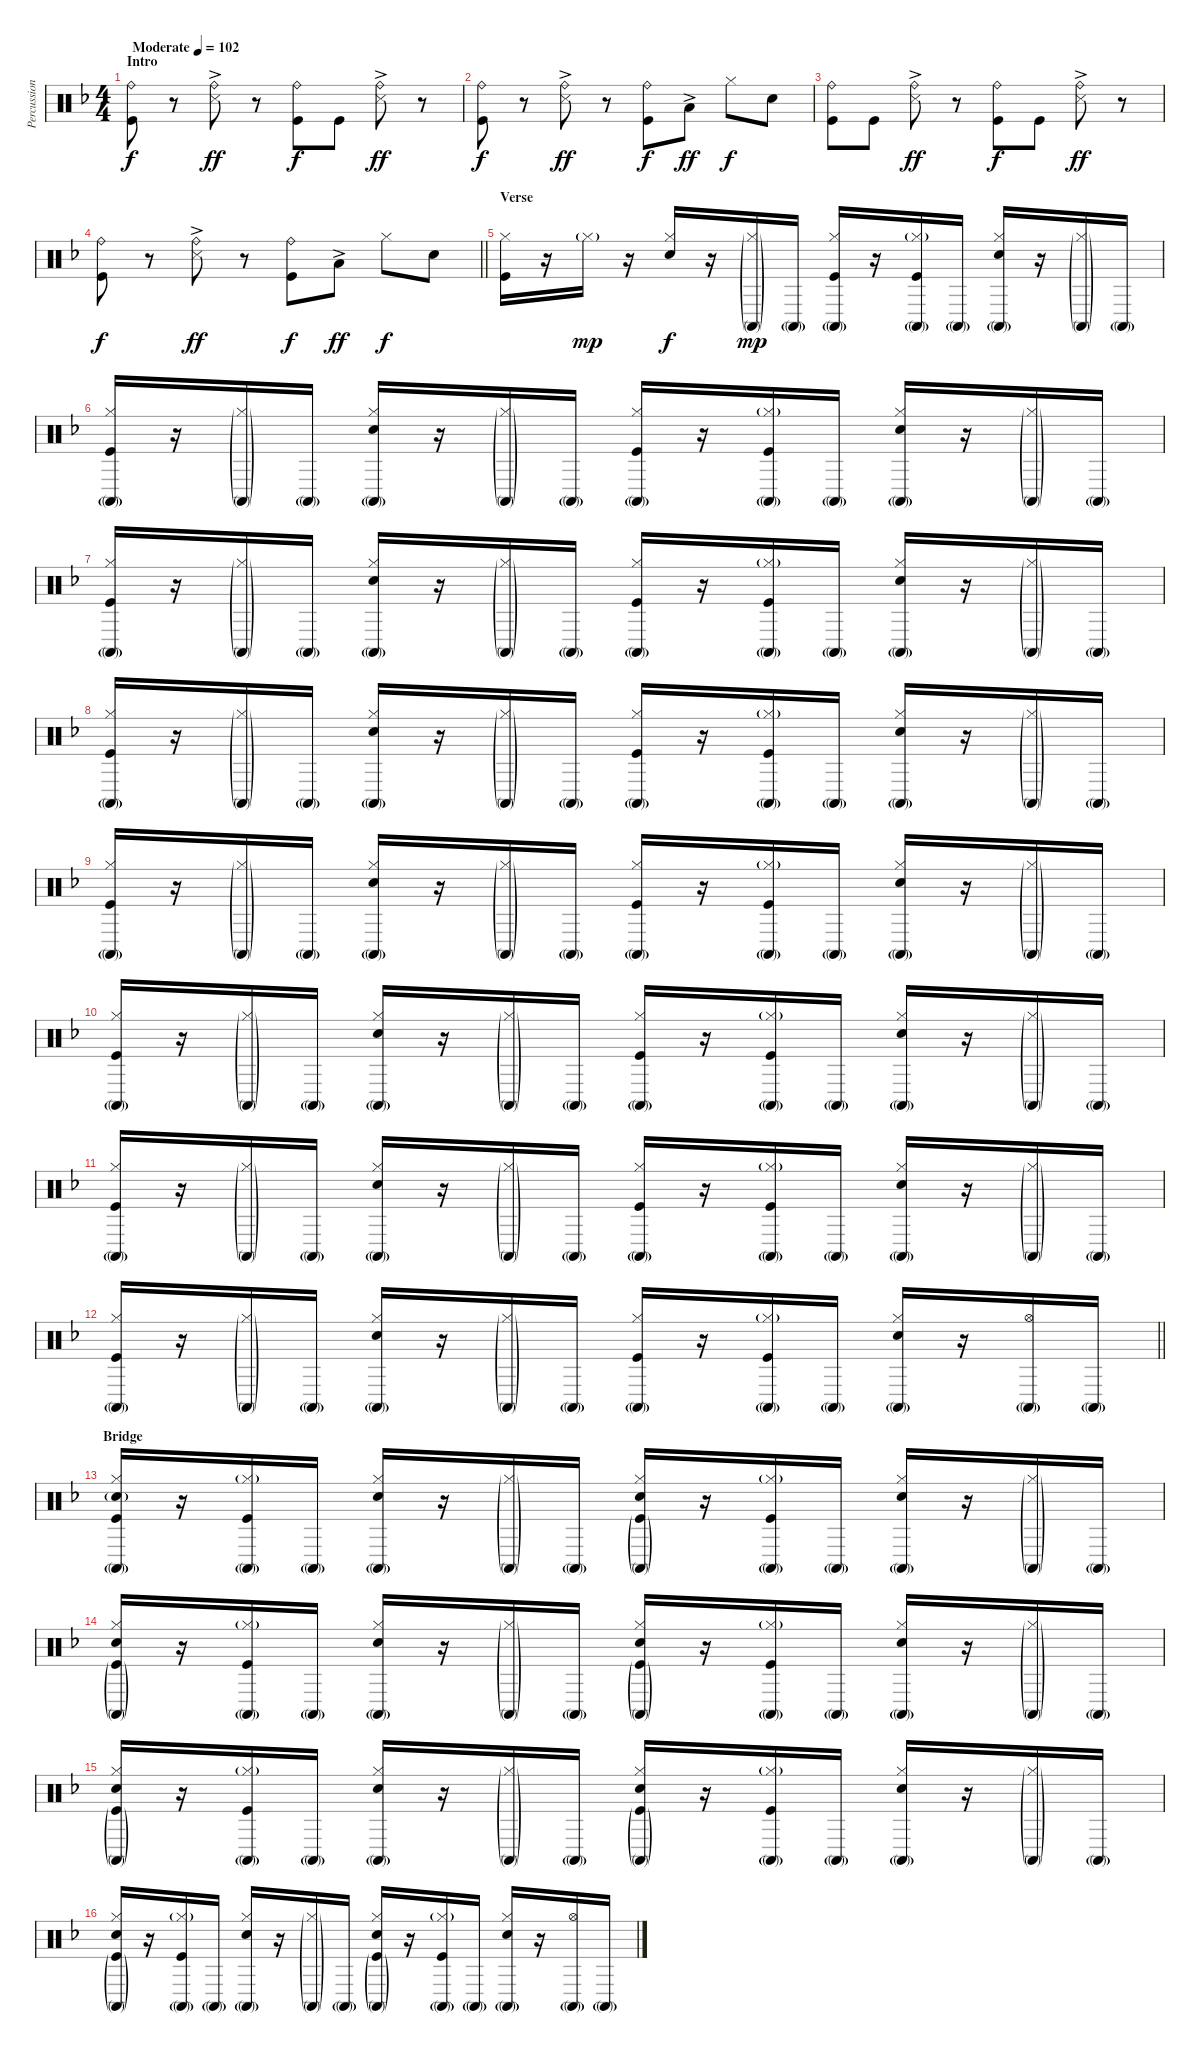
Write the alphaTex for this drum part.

\track ("Percussion" "Percussion") {instrument percussion bank 255}
\staff {score}
\articulation defaults
\ts (4 4)
\section ("" "Intro")
\tempo (102 "Moderate")
\clef neutral
\ks f
("Ride (bell)" "Kick (hit)").8{dy f} r.8 ("Ride (bell)" "Snare (side stick) 3"{ac}).8{dy ff} r.8 ("Ride (bell)" "Kick (hit)").8{dy f} "Kick (hit)".8 ("Ride (bell)" "Snare (side stick) 3"{ac}).8{dy ff} r.8 |
("Ride (bell)" "Kick (hit)").8{dy f} r.8 ("Ride (bell)" "Snare (side stick) 3"{ac}).8{dy ff} r.8 ("Ride (bell)" "Kick (hit)").8{dy f} "Low Tom (hit)"{ac}.8{dy ff} "Hi-Hat (closed)".8{dy f} "Snare (hit) 2".8 |
("Ride (bell)" "Kick (hit)").8 "Kick (hit)".8 ("Ride (bell)" "Snare (side stick) 3"{ac}).8{dy ff} r.8 ("Ride (bell)" "Kick (hit)").8{dy f} "Kick (hit)".8 ("Ride (bell)" "Snare (side stick) 3"{ac}).8{dy ff} r.8 |
\barLineRight lightlight
("Ride (bell)" "Kick (hit)").8{dy f} r.8 ("Ride (bell)" "Snare (side stick) 3"{ac}).8{dy ff} r.8 ("Ride (bell)" "Kick (hit)").8{dy f} "Low Tom (hit)"{ac}.8{dy ff} "Hi-Hat (closed)".8{dy f} "Snare (hit) 2".8 |
\section ("" "Verse")
("Hi-Hat (closed)" "Kick (hit)").16 r.16 "Hi-Hat (closed)"{g}.16{dy mp} r.16 ("Hi-Hat (closed)" "Snare (hit) 2").16{dy f} r.16 ("Conga high (mute)"{g} "Hi-Hat (closed)"{g}).16{dy mp} "Conga high (mute)"{g}.16 ("Conga high (mute)"{g} "Hi-Hat (closed)" "Kick (hit)").16 r.16 ("Conga high (mute)"{g} "Hi-Hat (closed)"{g} "Kick (hit)").16 "Conga high (mute)"{g}.16 ("Conga high (mute)"{g} "Hi-Hat (closed)" "Snare (hit) 2").16 r.16 ("Conga high (mute)"{g} "Hi-Hat (closed)"{g}).16 "Conga high (mute)"{g}.16 |
("Conga high (mute)"{g} "Hi-Hat (closed)" "Kick (hit)").16 r.16 ("Conga high (mute)"{g} "Hi-Hat (closed)"{g}).16 "Conga high (mute)"{g}.16 ("Conga high (mute)"{g} "Hi-Hat (closed)" "Snare (hit) 2").16 r.16 ("Conga high (mute)"{g} "Hi-Hat (closed)"{g}).16 "Conga high (mute)"{g}.16 ("Conga high (mute)"{g} "Hi-Hat (closed)" "Kick (hit)").16 r.16 ("Conga high (mute)"{g} "Hi-Hat (closed)"{g} "Kick (hit)").16 "Conga high (mute)"{g}.16 ("Conga high (mute)"{g} "Hi-Hat (closed)" "Snare (hit) 2").16 r.16 ("Conga high (mute)"{g} "Hi-Hat (closed)"{g}).16 "Conga high (mute)"{g}.16 |
("Conga high (mute)"{g} "Hi-Hat (closed)" "Kick (hit)").16 r.16 ("Conga high (mute)"{g} "Hi-Hat (closed)"{g}).16 "Conga high (mute)"{g}.16 ("Conga high (mute)"{g} "Hi-Hat (closed)" "Snare (hit) 2").16 r.16 ("Conga high (mute)"{g} "Hi-Hat (closed)"{g}).16 "Conga high (mute)"{g}.16 ("Conga high (mute)"{g} "Hi-Hat (closed)" "Kick (hit)").16 r.16 ("Conga high (mute)"{g} "Hi-Hat (closed)"{g} "Kick (hit)").16 "Conga high (mute)"{g}.16 ("Conga high (mute)"{g} "Hi-Hat (closed)" "Snare (hit) 2").16 r.16 ("Conga high (mute)"{g} "Hi-Hat (closed)"{g}).16 "Conga high (mute)"{g}.16 |
("Conga high (mute)"{g} "Hi-Hat (closed)" "Kick (hit)").16 r.16 ("Conga high (mute)"{g} "Hi-Hat (closed)"{g}).16 "Conga high (mute)"{g}.16 ("Conga high (mute)"{g} "Hi-Hat (closed)" "Snare (hit) 2").16 r.16 ("Conga high (mute)"{g} "Hi-Hat (closed)"{g}).16 "Conga high (mute)"{g}.16 ("Conga high (mute)"{g} "Hi-Hat (closed)" "Kick (hit)").16 r.16 ("Conga high (mute)"{g} "Hi-Hat (closed)"{g} "Kick (hit)").16 "Conga high (mute)"{g}.16 ("Conga high (mute)"{g} "Hi-Hat (closed)" "Snare (hit) 2").16 r.16 ("Conga high (mute)"{g} "Hi-Hat (closed)"{g}).16 "Conga high (mute)"{g}.16 |
("Conga high (mute)"{g} "Hi-Hat (closed)" "Kick (hit)").16 r.16 ("Conga high (mute)"{g} "Hi-Hat (closed)"{g}).16 "Conga high (mute)"{g}.16 ("Conga high (mute)"{g} "Hi-Hat (closed)" "Snare (hit) 2").16 r.16 ("Conga high (mute)"{g} "Hi-Hat (closed)"{g}).16 "Conga high (mute)"{g}.16 ("Conga high (mute)"{g} "Hi-Hat (closed)" "Kick (hit)").16 r.16 ("Conga high (mute)"{g} "Hi-Hat (closed)"{g} "Kick (hit)").16 "Conga high (mute)"{g}.16 ("Conga high (mute)"{g} "Hi-Hat (closed)" "Snare (hit) 2").16 r.16 ("Conga high (mute)"{g} "Hi-Hat (closed)"{g}).16 "Conga high (mute)"{g}.16 |
("Conga high (mute)"{g} "Hi-Hat (closed)" "Kick (hit)").16 r.16 ("Conga high (mute)"{g} "Hi-Hat (closed)"{g}).16 "Conga high (mute)"{g}.16 ("Conga high (mute)"{g} "Hi-Hat (closed)" "Snare (hit) 2").16 r.16 ("Conga high (mute)"{g} "Hi-Hat (closed)"{g}).16 "Conga high (mute)"{g}.16 ("Conga high (mute)"{g} "Hi-Hat (closed)" "Kick (hit)").16 r.16 ("Conga high (mute)"{g} "Hi-Hat (closed)"{g} "Kick (hit)").16 "Conga high (mute)"{g}.16 ("Conga high (mute)"{g} "Hi-Hat (closed)" "Snare (hit) 2").16 r.16 ("Conga high (mute)"{g} "Hi-Hat (closed)"{g}).16 "Conga high (mute)"{g}.16 |
("Conga high (mute)"{g} "Hi-Hat (closed)" "Kick (hit)").16 r.16 ("Conga high (mute)"{g} "Hi-Hat (closed)"{g}).16 "Conga high (mute)"{g}.16 ("Conga high (mute)"{g} "Hi-Hat (closed)" "Snare (hit) 2").16 r.16 ("Conga high (mute)"{g} "Hi-Hat (closed)"{g}).16 "Conga high (mute)"{g}.16 ("Conga high (mute)"{g} "Hi-Hat (closed)" "Kick (hit)").16 r.16 ("Conga high (mute)"{g} "Hi-Hat (closed)"{g} "Kick (hit)").16 "Conga high (mute)"{g}.16 ("Conga high (mute)"{g} "Hi-Hat (closed)" "Snare (hit) 2").16 r.16 ("Conga high (mute)"{g} "Hi-Hat (closed)"{g}).16 "Conga high (mute)"{g}.16 |
\barLineRight lightlight
("Conga high (mute)"{g} "Hi-Hat (closed)" "Kick (hit)").16 r.16 ("Conga high (mute)"{g} "Hi-Hat (closed)"{g}).16 "Conga high (mute)"{g}.16 ("Conga high (mute)"{g} "Hi-Hat (closed)" "Snare (hit) 2").16 r.16 ("Conga high (mute)"{g} "Hi-Hat (closed)"{g}).16 "Conga high (mute)"{g}.16 ("Conga high (mute)"{g} "Hi-Hat (closed)" "Kick (hit)").16 r.16 ("Conga high (mute)"{g} "Hi-Hat (closed)"{g} "Kick (hit)").16 "Conga high (mute)"{g}.16 ("Conga high (mute)"{g} "Hi-Hat (closed)" "Snare (hit) 2").16 r.16 ("Conga high (mute)"{g} "Hi-Hat (open)").16 "Conga high (mute)"{g}.16 |
\section ("" "Bridge")
("Conga high (mute)"{g} "Hi-Hat (closed)" "Snare (hit) 2"{g} "Kick (hit)").16 r.16 ("Conga high (mute)"{g} "Hi-Hat (closed)"{g} "Kick (hit)").16 "Conga high (mute)"{g}.16 ("Conga high (mute)"{g} "Hi-Hat (closed)" "Snare (hit) 2").16 r.16 ("Conga high (mute)"{g} "Hi-Hat (closed)"{g}).16 "Conga high (mute)"{g}.16 ("Conga high (mute)"{g} "Hi-Hat (closed)" "Snare (hit) 2" "Kick (hit)"{g}).16 r.16 ("Conga high (mute)"{g} "Hi-Hat (closed)"{g} "Kick (hit)").16 "Conga high (mute)"{g}.16 ("Conga high (mute)"{g} "Hi-Hat (closed)" "Snare (hit) 2").16 r.16 ("Conga high (mute)"{g} "Hi-Hat (closed)"{g}).16 "Conga high (mute)"{g}.16 |
("Conga high (mute)"{g} "Hi-Hat (closed)" "Snare (hit) 2" "Kick (hit)"{g}).16 r.16 ("Conga high (mute)"{g} "Hi-Hat (closed)"{g} "Kick (hit)").16 "Conga high (mute)"{g}.16 ("Conga high (mute)"{g} "Hi-Hat (closed)" "Snare (hit) 2").16 r.16 ("Conga high (mute)"{g} "Hi-Hat (closed)"{g}).16 "Conga high (mute)"{g}.16 ("Conga high (mute)"{g} "Hi-Hat (closed)" "Snare (hit) 2" "Kick (hit)"{g}).16 r.16 ("Conga high (mute)"{g} "Hi-Hat (closed)"{g} "Kick (hit)").16 "Conga high (mute)"{g}.16 ("Conga high (mute)"{g} "Hi-Hat (closed)" "Snare (hit) 2").16 r.16 ("Conga high (mute)"{g} "Hi-Hat (closed)"{g}).16 "Conga high (mute)"{g}.16 |
("Conga high (mute)"{g} "Hi-Hat (closed)" "Snare (hit) 2" "Kick (hit)"{g}).16 r.16 ("Conga high (mute)"{g} "Hi-Hat (closed)"{g} "Kick (hit)").16 "Conga high (mute)"{g}.16 ("Conga high (mute)"{g} "Hi-Hat (closed)" "Snare (hit) 2").16 r.16 ("Conga high (mute)"{g} "Hi-Hat (closed)"{g}).16 "Conga high (mute)"{g}.16 ("Conga high (mute)"{g} "Hi-Hat (closed)" "Snare (hit) 2" "Kick (hit)"{g}).16 r.16 ("Conga high (mute)"{g} "Hi-Hat (closed)"{g} "Kick (hit)").16 "Conga high (mute)"{g}.16 ("Conga high (mute)"{g} "Hi-Hat (closed)" "Snare (hit) 2").16 r.16 ("Conga high (mute)"{g} "Hi-Hat (closed)"{g}).16 "Conga high (mute)"{g}.16 |
("Conga high (mute)"{g} "Hi-Hat (closed)" "Snare (hit) 2" "Kick (hit)"{g}).16 r.16 ("Conga high (mute)"{g} "Hi-Hat (closed)"{g} "Kick (hit)").16 "Conga high (mute)"{g}.16 ("Conga high (mute)"{g} "Hi-Hat (closed)" "Snare (hit) 2").16 r.16 ("Conga high (mute)"{g} "Hi-Hat (closed)"{g}).16 "Conga high (mute)"{g}.16 ("Conga high (mute)"{g} "Hi-Hat (closed)" "Snare (hit) 2" "Kick (hit)"{g}).16 r.16 ("Conga high (mute)"{g} "Hi-Hat (closed)"{g} "Kick (hit)").16 "Conga high (mute)"{g}.16 ("Conga high (mute)"{g} "Hi-Hat (closed)" "Snare (hit) 2").16 r.16 ("Conga high (mute)"{g} "Hi-Hat (open)").16 "Conga high (mute)"{g}.16
